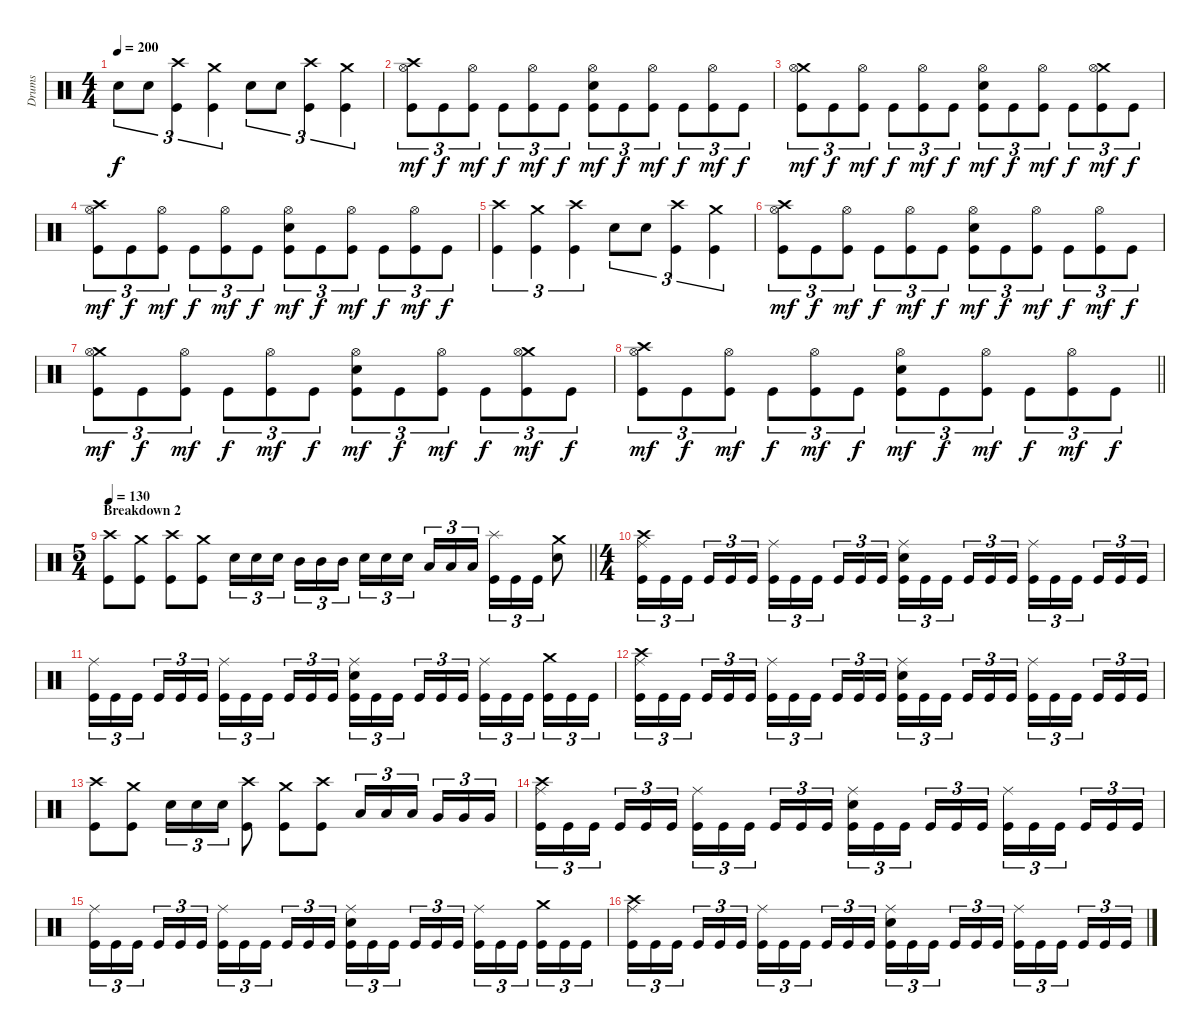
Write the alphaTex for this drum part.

\track ("Drums" "Drums") {instrument percussion}
\staff {score}
\articulation defaults
\ts (4 4)
\tempo 200
\clef neutral
\ks c "Electric Snare (hit)".8{tu (3 2) dy f} "Electric Snare (hit)".8{tu (3 2)}
("Crash high (hit)" "Kick (hit)").4{tu (3 2)} ("Crash medium (hit)" "Kick (hit)").4{tu (3 2)} "Electric Snare (hit)".8{tu (3 2)} "Electric Snare (hit)".8{tu (3 2)} ("Crash high (hit)" "Kick (hit)").4{tu (3 2)} ("Crash medium (hit)" "Kick (hit)").4{tu (3 2)} |
("Crash high (hit)" "Hi-Hat (open)" "Kick (hit)").8{tu (3 2) dy mf} "Kick (hit)".8{tu (3 2) dy f} ("Hi-Hat (open)" "Kick (hit)").8{tu (3 2) dy mf} "Kick (hit)".8{tu (3 2) dy f} ("Hi-Hat (open)" "Kick (hit)").8{tu (3 2) dy mf} "Kick (hit)".8{tu (3 2) dy f} ("Hi-Hat (open)" "Electric Snare (hit)" "Kick (hit)").8{tu (3 2) dy mf} "Kick (hit)".8{tu (3 2) dy f} ("Hi-Hat (open)" "Kick (hit)").8{tu (3 2) dy mf} "Kick (hit)".8{tu (3 2) dy f} ("Hi-Hat (open)" "Kick (hit)").8{tu (3 2) dy mf} "Kick (hit)".8{tu (3 2) dy f} |
("Crash medium (hit)" "Hi-Hat (open)" "Kick (hit)").8{tu (3 2) dy mf} "Kick (hit)".8{tu (3 2) dy f} ("Hi-Hat (open)" "Kick (hit)").8{tu (3 2) dy mf} "Kick (hit)".8{tu (3 2) dy f} ("Hi-Hat (open)" "Kick (hit)").8{tu (3 2) dy mf} "Kick (hit)".8{tu (3 2) dy f} ("Hi-Hat (open)" "Electric Snare (hit)" "Kick (hit)").8{tu (3 2) dy mf} "Kick (hit)".8{tu (3 2) dy f} ("Hi-Hat (open)" "Kick (hit)").8{tu (3 2) dy mf} "Kick (hit)".8{tu (3 2) dy f} ("Crash medium (hit)" "Hi-Hat (open)" "Kick (hit)").8{tu (3 2) dy mf} "Kick (hit)".8{tu (3 2) dy f} |
("Crash high (hit)" "Hi-Hat (open)" "Kick (hit)").8{tu (3 2) dy mf} "Kick (hit)".8{tu (3 2) dy f} ("Hi-Hat (open)" "Kick (hit)").8{tu (3 2) dy mf} "Kick (hit)".8{tu (3 2) dy f} ("Hi-Hat (open)" "Kick (hit)").8{tu (3 2) dy mf} "Kick (hit)".8{tu (3 2) dy f} ("Hi-Hat (open)" "Electric Snare (hit)" "Kick (hit)").8{tu (3 2) dy mf} "Kick (hit)".8{tu (3 2) dy f} ("Hi-Hat (open)" "Kick (hit)").8{tu (3 2) dy mf} "Kick (hit)".8{tu (3 2) dy f} ("Hi-Hat (open)" "Kick (hit)").8{tu (3 2) dy mf} "Kick (hit)".8{tu (3 2) dy f} |
("Crash high (hit)" "Kick (hit)").4{tu (3 2)} ("Crash medium (hit)" "Kick (hit)").4{tu (3 2)} ("Crash high (hit)" "Kick (hit)").4{tu (3 2)} "Electric Snare (hit)".8{tu (3 2)} "Electric Snare (hit)".8{tu (3 2)} ("Crash high (hit)" "Kick (hit)").4{tu (3 2)} ("Crash medium (hit)" "Kick (hit)").4{tu (3 2)} |
("Crash high (hit)" "Hi-Hat (open)" "Kick (hit)").8{tu (3 2) dy mf} "Kick (hit)".8{tu (3 2) dy f} ("Hi-Hat (open)" "Kick (hit)").8{tu (3 2) dy mf} "Kick (hit)".8{tu (3 2) dy f} ("Hi-Hat (open)" "Kick (hit)").8{tu (3 2) dy mf} "Kick (hit)".8{tu (3 2) dy f} ("Hi-Hat (open)" "Electric Snare (hit)" "Kick (hit)").8{tu (3 2) dy mf} "Kick (hit)".8{tu (3 2) dy f} ("Hi-Hat (open)" "Kick (hit)").8{tu (3 2) dy mf} "Kick (hit)".8{tu (3 2) dy f} ("Hi-Hat (open)" "Kick (hit)").8{tu (3 2) dy mf} "Kick (hit)".8{tu (3 2) dy f} |
("Crash medium (hit)" "Hi-Hat (open)" "Kick (hit)").8{tu (3 2) dy mf} "Kick (hit)".8{tu (3 2) dy f} ("Hi-Hat (open)" "Kick (hit)").8{tu (3 2) dy mf} "Kick (hit)".8{tu (3 2) dy f} ("Hi-Hat (open)" "Kick (hit)").8{tu (3 2) dy mf} "Kick (hit)".8{tu (3 2) dy f} ("Hi-Hat (open)" "Electric Snare (hit)" "Kick (hit)").8{tu (3 2) dy mf} "Kick (hit)".8{tu (3 2) dy f} ("Hi-Hat (open)" "Kick (hit)").8{tu (3 2) dy mf} "Kick (hit)".8{tu (3 2) dy f} ("Crash medium (hit)" "Hi-Hat (open)" "Kick (hit)").8{tu (3 2) dy mf} "Kick (hit)".8{tu (3 2) dy f} |
\barLineRight lightlight
("Crash high (hit)" "Hi-Hat (open)" "Kick (hit)").8{tu (3 2) dy mf} "Kick (hit)".8{tu (3 2) dy f} ("Hi-Hat (open)" "Kick (hit)").8{tu (3 2) dy mf} "Kick (hit)".8{tu (3 2) dy f} ("Hi-Hat (open)" "Kick (hit)").8{tu (3 2) dy mf} "Kick (hit)".8{tu (3 2) dy f} ("Hi-Hat (open)" "Electric Snare (hit)" "Kick (hit)").8{tu (3 2) dy mf} "Kick (hit)".8{tu (3 2) dy f} ("Hi-Hat (open)" "Kick (hit)").8{tu (3 2) dy mf} "Kick (hit)".8{tu (3 2) dy f} ("Hi-Hat (open)" "Kick (hit)").8{tu (3 2) dy mf} "Kick (hit)".8{tu (3 2) dy f} |
\ts (5 4)
\section ("" "Breakdown 2")
\tempo 130
\barLineRight lightlight
("Crash high (hit)" "Kick (hit)").8 ("Crash medium (hit)" "Kick (hit)").8 ("Crash high (hit)" "Kick (hit)").8 ("Crash medium (hit)" "Kick (hit)").8 "Electric Snare (hit)".16{tu (3 2)} "Electric Snare (hit)".16{tu (3 2)} "Electric Snare (hit)".16{tu (3 2) beam splitsecondary} "Mid Tom (hit)".16{tu (3 2)} "Mid Tom (hit)".16{tu (3 2)} "Mid Tom (hit)".16{tu (3 2)} "Electric Snare (hit)".16{tu (3 2)} "Electric Snare (hit)".16{tu (3 2)} "Electric Snare (hit)".16{tu (3 2) beam splitsecondary} "Low Tom (hit)".16{tu (3 2)} "Low Tom (hit)".16{tu (3 2)} "Low Tom (hit)".16{tu (3 2)} ("Splash (hit)" "Kick (hit)").16{tu (3 2)} "Kick (hit)".16{tu (3 2)} "Kick (hit)".16{tu (3 2)} ("Crash medium (hit)" "Electric Snare (hit)").8 |
\ts (4 4)
("Crash high (hit)" "Ride (middle)" "Kick (hit)").16{tu (3 2)} "Kick (hit)".16{tu (3 2)} "Kick (hit)".16{tu (3 2) beam splitsecondary} "Kick (hit)".16{tu (3 2)} "Kick (hit)".16{tu (3 2)} "Kick (hit)".16{tu (3 2)} ("Ride (middle)" "Kick (hit)").16{tu (3 2)} "Kick (hit)".16{tu (3 2)} "Kick (hit)".16{tu (3 2) beam splitsecondary} "Kick (hit)".16{tu (3 2)} "Kick (hit)".16{tu (3 2)} "Kick (hit)".16{tu (3 2)} ("Ride (middle)" "Electric Snare (hit)" "Kick (hit)").16{tu (3 2)} "Kick (hit)".16{tu (3 2)} "Kick (hit)".16{tu (3 2) beam splitsecondary} "Kick (hit)".16{tu (3 2)} "Kick (hit)".16{tu (3 2)} "Kick (hit)".16{tu (3 2)} ("Ride (middle)" "Kick (hit)").16{tu (3 2)} "Kick (hit)".16{tu (3 2)} "Kick (hit)".16{tu (3 2) beam splitsecondary} "Kick (hit)".16{tu (3 2)} "Kick (hit)".16{tu (3 2)} "Kick (hit)".16{tu (3 2)} |
("Ride (middle)" "Kick (hit)").16{tu (3 2)} "Kick (hit)".16{tu (3 2)} "Kick (hit)".16{tu (3 2) beam splitsecondary} "Kick (hit)".16{tu (3 2)} "Kick (hit)".16{tu (3 2)} "Kick (hit)".16{tu (3 2)} ("Ride (middle)" "Kick (hit)").16{tu (3 2)} "Kick (hit)".16{tu (3 2)} "Kick (hit)".16{tu (3 2) beam splitsecondary} "Kick (hit)".16{tu (3 2)} "Kick (hit)".16{tu (3 2)} "Kick (hit)".16{tu (3 2)} ("Ride (middle)" "Electric Snare (hit)" "Kick (hit)").16{tu (3 2)} "Kick (hit)".16{tu (3 2)} "Kick (hit)".16{tu (3 2) beam splitsecondary} "Kick (hit)".16{tu (3 2)} "Kick (hit)".16{tu (3 2)} "Kick (hit)".16{tu (3 2)} ("Ride (middle)" "Kick (hit)").16{tu (3 2)} "Kick (hit)".16{tu (3 2)} "Kick (hit)".16{tu (3 2) beam splitsecondary} ("Crash medium (hit)" "Kick (hit)").16{tu (3 2)} "Kick (hit)".16{tu (3 2)} "Kick (hit)".16{tu (3 2)} |
("Crash high (hit)" "Ride (middle)" "Kick (hit)").16{tu (3 2)} "Kick (hit)".16{tu (3 2)} "Kick (hit)".16{tu (3 2) beam splitsecondary} "Kick (hit)".16{tu (3 2)} "Kick (hit)".16{tu (3 2)} "Kick (hit)".16{tu (3 2)} ("Ride (middle)" "Kick (hit)").16{tu (3 2)} "Kick (hit)".16{tu (3 2)} "Kick (hit)".16{tu (3 2) beam splitsecondary} "Kick (hit)".16{tu (3 2)} "Kick (hit)".16{tu (3 2)} "Kick (hit)".16{tu (3 2)} ("Ride (middle)" "Electric Snare (hit)" "Kick (hit)").16{tu (3 2)} "Kick (hit)".16{tu (3 2)} "Kick (hit)".16{tu (3 2) beam splitsecondary} "Kick (hit)".16{tu (3 2)} "Kick (hit)".16{tu (3 2)} "Kick (hit)".16{tu (3 2)} ("Ride (middle)" "Kick (hit)").16{tu (3 2)} "Kick (hit)".16{tu (3 2)} "Kick (hit)".16{tu (3 2) beam splitsecondary} "Kick (hit)".16{tu (3 2)} "Kick (hit)".16{tu (3 2)} "Kick (hit)".16{tu (3 2)} |
("Crash high (hit)" "Kick (hit)").8 ("Crash medium (hit)" "Kick (hit)").8 "Electric Snare (hit)".16{tu (3 2)} "Electric Snare (hit)".16{tu (3 2)} "Electric Snare (hit)".16{tu (3 2)} ("Crash high (hit)" "Kick (hit)").8 ("Crash medium (hit)" "Kick (hit)").8 ("Crash high (hit)" "Kick (hit)").8 "Low Tom (hit)".16{tu (3 2)} "Low Tom (hit)".16{tu (3 2)} "Low Tom (hit)".16{tu (3 2) beam splitsecondary} "Very Low Tom (hit)".16{tu (3 2)} "Very Low Tom (hit)".16{tu (3 2)} "Very Low Tom (hit)".16{tu (3 2)} |
("Crash high (hit)" "Ride (middle)" "Kick (hit)").16{tu (3 2)} "Kick (hit)".16{tu (3 2)} "Kick (hit)".16{tu (3 2) beam splitsecondary} "Kick (hit)".16{tu (3 2)} "Kick (hit)".16{tu (3 2)} "Kick (hit)".16{tu (3 2)} ("Ride (middle)" "Kick (hit)").16{tu (3 2)} "Kick (hit)".16{tu (3 2)} "Kick (hit)".16{tu (3 2) beam splitsecondary} "Kick (hit)".16{tu (3 2)} "Kick (hit)".16{tu (3 2)} "Kick (hit)".16{tu (3 2)} ("Ride (middle)" "Electric Snare (hit)" "Kick (hit)").16{tu (3 2)} "Kick (hit)".16{tu (3 2)} "Kick (hit)".16{tu (3 2) beam splitsecondary} "Kick (hit)".16{tu (3 2)} "Kick (hit)".16{tu (3 2)} "Kick (hit)".16{tu (3 2)} ("Ride (middle)" "Kick (hit)").16{tu (3 2)} "Kick (hit)".16{tu (3 2)} "Kick (hit)".16{tu (3 2) beam splitsecondary} "Kick (hit)".16{tu (3 2)} "Kick (hit)".16{tu (3 2)} "Kick (hit)".16{tu (3 2)} |
("Ride (middle)" "Kick (hit)").16{tu (3 2)} "Kick (hit)".16{tu (3 2)} "Kick (hit)".16{tu (3 2) beam splitsecondary} "Kick (hit)".16{tu (3 2)} "Kick (hit)".16{tu (3 2)} "Kick (hit)".16{tu (3 2)} ("Ride (middle)" "Kick (hit)").16{tu (3 2)} "Kick (hit)".16{tu (3 2)} "Kick (hit)".16{tu (3 2) beam splitsecondary} "Kick (hit)".16{tu (3 2)} "Kick (hit)".16{tu (3 2)} "Kick (hit)".16{tu (3 2)} ("Ride (middle)" "Electric Snare (hit)" "Kick (hit)").16{tu (3 2)} "Kick (hit)".16{tu (3 2)} "Kick (hit)".16{tu (3 2) beam splitsecondary} "Kick (hit)".16{tu (3 2)} "Kick (hit)".16{tu (3 2)} "Kick (hit)".16{tu (3 2)} ("Ride (middle)" "Kick (hit)").16{tu (3 2)} "Kick (hit)".16{tu (3 2)} "Kick (hit)".16{tu (3 2) beam splitsecondary} ("Crash medium (hit)" "Kick (hit)").16{tu (3 2)} "Kick (hit)".16{tu (3 2)} "Kick (hit)".16{tu (3 2)} |
("Crash high (hit)" "Ride (middle)" "Kick (hit)").16{tu (3 2)} "Kick (hit)".16{tu (3 2)} "Kick (hit)".16{tu (3 2) beam splitsecondary} "Kick (hit)".16{tu (3 2)} "Kick (hit)".16{tu (3 2)} "Kick (hit)".16{tu (3 2)} ("Ride (middle)" "Kick (hit)").16{tu (3 2)} "Kick (hit)".16{tu (3 2)} "Kick (hit)".16{tu (3 2) beam splitsecondary} "Kick (hit)".16{tu (3 2)} "Kick (hit)".16{tu (3 2)} "Kick (hit)".16{tu (3 2)} ("Ride (middle)" "Electric Snare (hit)" "Kick (hit)").16{tu (3 2)} "Kick (hit)".16{tu (3 2)} "Kick (hit)".16{tu (3 2) beam splitsecondary} "Kick (hit)".16{tu (3 2)} "Kick (hit)".16{tu (3 2)} "Kick (hit)".16{tu (3 2)} ("Ride (middle)" "Kick (hit)").16{tu (3 2)} "Kick (hit)".16{tu (3 2)} "Kick (hit)".16{tu (3 2) beam splitsecondary} "Kick (hit)".16{tu (3 2)} "Kick (hit)".16{tu (3 2)} "Kick (hit)".16{tu (3 2)}
